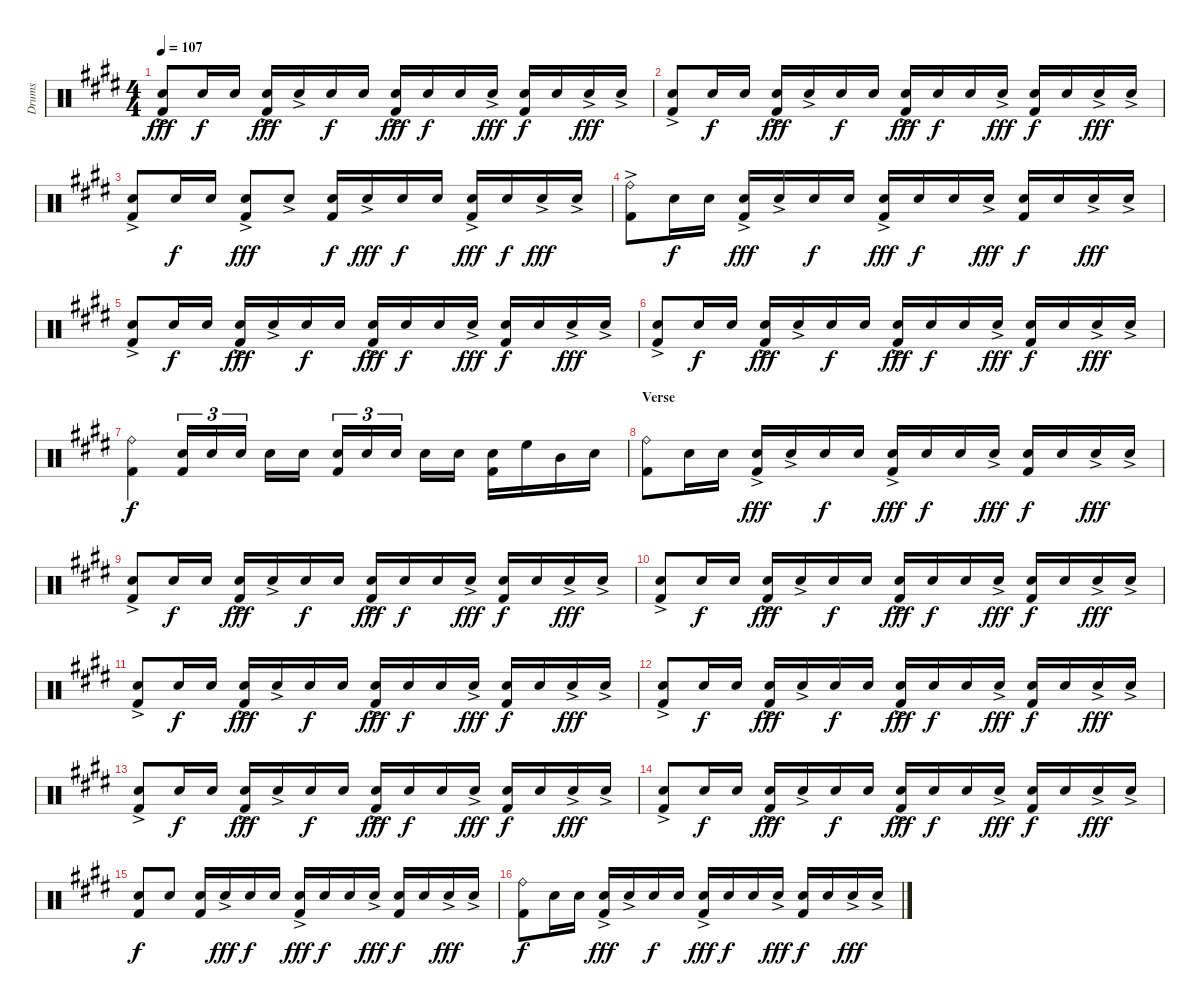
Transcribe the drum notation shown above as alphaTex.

\track ("Drums" "Drums") {instrument percussion}
\staff {score}
\articulation defaults
\ts (4 4)
\tempo 107
\clef neutral
\ks c#minor
("Electric Snare (hit)"{ac} "Kick (hit) 2").8{dy fff} "Electric Snare (hit)".16{dy f} "Electric Snare (hit)".16 ("Electric Snare (hit)"{ac} "Kick (hit) 2").16{dy fff} "Electric Snare (hit)"{ac}.16 "Electric Snare (hit)".16{dy f} "Electric Snare (hit)".16 ("Electric Snare (hit)"{ac} "Kick (hit) 2").16{dy fff} "Electric Snare (hit)".16{dy f} "Electric Snare (hit)".16 "Electric Snare (hit)"{ac}.16{dy fff} ("Electric Snare (hit)" "Kick (hit) 2").16{dy f} "Electric Snare (hit)".16 "Electric Snare (hit)"{ac}.16{dy fff} "Electric Snare (hit)"{ac}.16 |
("Electric Snare (hit)"{ac} "Kick (hit) 2").8 "Electric Snare (hit)".16{dy f} "Electric Snare (hit)".16 ("Electric Snare (hit)"{ac} "Kick (hit) 2").16{dy fff} "Electric Snare (hit)"{ac}.16 "Electric Snare (hit)".16{dy f} "Electric Snare (hit)".16 ("Electric Snare (hit)"{ac} "Kick (hit) 2").16{dy fff} "Electric Snare (hit)".16{dy f} "Electric Snare (hit)".16 "Electric Snare (hit)"{ac}.16{dy fff} ("Electric Snare (hit)" "Kick (hit) 2").16{dy f} "Electric Snare (hit)".16 "Electric Snare (hit)"{ac}.16{dy fff} "Electric Snare (hit)"{ac}.16 |
("Electric Snare (hit)"{ac} "Kick (hit) 2").8 "Electric Snare (hit)".16{dy f} "Electric Snare (hit)".16 ("Electric Snare (hit)"{ac} "Kick (hit) 2").8{dy fff} "Electric Snare (hit)"{ac}.8 ("Electric Snare (hit)" "Kick (hit) 2").16{dy f} "Electric Snare (hit)"{ac}.16{dy fff} "Electric Snare (hit)".16{dy f} "Electric Snare (hit)".16 ("Electric Snare (hit)"{ac} "Kick (hit) 2").16{dy fff} "Electric Snare (hit)".16{dy f} "Electric Snare (hit)"{ac}.16{dy fff} "Electric Snare (hit)"{ac}.16 |
("Ride (bell)"{ac} "Kick (hit) 2").8 "Electric Snare (hit)".16{dy f} "Electric Snare (hit)".16 ("Electric Snare (hit)"{ac} "Kick (hit) 2").16{dy fff} "Electric Snare (hit)"{ac}.16 "Electric Snare (hit)".16{dy f} "Electric Snare (hit)".16 ("Electric Snare (hit)"{ac} "Kick (hit) 2").16{dy fff} "Electric Snare (hit)".16{dy f} "Electric Snare (hit)".16 "Electric Snare (hit)"{ac}.16{dy fff} ("Electric Snare (hit)" "Kick (hit) 2").16{dy f} "Electric Snare (hit)".16 "Electric Snare (hit)"{ac}.16{dy fff} "Electric Snare (hit)"{ac}.16 |
("Electric Snare (hit)"{ac} "Kick (hit) 2").8 "Electric Snare (hit)".16{dy f} "Electric Snare (hit)".16 ("Electric Snare (hit)"{ac} "Kick (hit) 2").16{dy fff} "Electric Snare (hit)"{ac}.16 "Electric Snare (hit)".16{dy f} "Electric Snare (hit)".16 ("Electric Snare (hit)"{ac} "Kick (hit) 2").16{dy fff} "Electric Snare (hit)".16{dy f} "Electric Snare (hit)".16 "Electric Snare (hit)"{ac}.16{dy fff} ("Electric Snare (hit)" "Kick (hit) 2").16{dy f} "Electric Snare (hit)".16 "Electric Snare (hit)"{ac}.16{dy fff} "Electric Snare (hit)"{ac}.16 |
("Electric Snare (hit)"{ac} "Kick (hit) 2").8 "Electric Snare (hit)".16{dy f} "Electric Snare (hit)".16 ("Electric Snare (hit)"{ac} "Kick (hit) 2").16{dy fff} "Electric Snare (hit)"{ac}.16 "Electric Snare (hit)".16{dy f} "Electric Snare (hit)".16 ("Electric Snare (hit)"{ac} "Kick (hit) 2").16{dy fff} "Electric Snare (hit)".16{dy f} "Electric Snare (hit)".16 "Electric Snare (hit)"{ac}.16{dy fff} ("Electric Snare (hit)" "Kick (hit) 2").16{dy f} "Electric Snare (hit)".16 "Electric Snare (hit)"{ac}.16{dy fff} "Electric Snare (hit)"{ac}.16 |
("Ride (bell)" "Kick (hit) 2").4{dy f} ("Electric Snare (hit)" "Kick (hit) 2").16{tu (3 2)} "Electric Snare (hit)".16{tu (3 2)} "Electric Snare (hit)".16{tu (3 2)} "Electric Snare (hit)".16 "Electric Snare (hit)".16 ("Electric Snare (hit)" "Kick (hit) 2").16{tu (3 2)} "Electric Snare (hit)".16{tu (3 2)} "Electric Snare (hit)".16{tu (3 2)} "Electric Snare (hit)".16 "Electric Snare (hit)".16 ("Electric Snare (hit)" "Kick (hit) 2").16 "High Floor Tom (hit)".16 "Mid Tom (hit)".16 "Electric Snare (hit)".16 |
\section ("" "Verse")
("Ride (bell)" "Kick (hit) 2").8 "Electric Snare (hit)".16 "Electric Snare (hit)".16 ("Electric Snare (hit)"{ac} "Kick (hit) 2").16{dy fff} "Electric Snare (hit)"{ac}.16 "Electric Snare (hit)".16{dy f} "Electric Snare (hit)".16 ("Electric Snare (hit)"{ac} "Kick (hit) 2").16{dy fff} "Electric Snare (hit)".16{dy f} "Electric Snare (hit)".16 "Electric Snare (hit)"{ac}.16{dy fff} ("Electric Snare (hit)" "Kick (hit) 2").16{dy f} "Electric Snare (hit)".16 "Electric Snare (hit)"{ac}.16{dy fff} "Electric Snare (hit)"{ac}.16 |
("Electric Snare (hit)"{ac} "Kick (hit) 2").8 "Electric Snare (hit)".16{dy f} "Electric Snare (hit)".16 ("Electric Snare (hit)"{ac} "Kick (hit) 2").16{dy fff} "Electric Snare (hit)"{ac}.16 "Electric Snare (hit)".16{dy f} "Electric Snare (hit)".16 ("Electric Snare (hit)"{ac} "Kick (hit) 2").16{dy fff} "Electric Snare (hit)".16{dy f} "Electric Snare (hit)".16 "Electric Snare (hit)"{ac}.16{dy fff} ("Electric Snare (hit)" "Kick (hit) 2").16{dy f} "Electric Snare (hit)".16 "Electric Snare (hit)"{ac}.16{dy fff} "Electric Snare (hit)"{ac}.16 |
("Electric Snare (hit)"{ac} "Kick (hit) 2").8 "Electric Snare (hit)".16{dy f} "Electric Snare (hit)".16 ("Electric Snare (hit)"{ac} "Kick (hit) 2").16{dy fff} "Electric Snare (hit)"{ac}.16 "Electric Snare (hit)".16{dy f} "Electric Snare (hit)".16 ("Electric Snare (hit)"{ac} "Kick (hit) 2").16{dy fff} "Electric Snare (hit)".16{dy f} "Electric Snare (hit)".16 "Electric Snare (hit)"{ac}.16{dy fff} ("Electric Snare (hit)" "Kick (hit) 2").16{dy f} "Electric Snare (hit)".16 "Electric Snare (hit)"{ac}.16{dy fff} "Electric Snare (hit)"{ac}.16 |
("Electric Snare (hit)"{ac} "Kick (hit) 2").8 "Electric Snare (hit)".16{dy f} "Electric Snare (hit)".16 ("Electric Snare (hit)"{ac} "Kick (hit) 2").16{dy fff} "Electric Snare (hit)"{ac}.16 "Electric Snare (hit)".16{dy f} "Electric Snare (hit)".16 ("Electric Snare (hit)"{ac} "Kick (hit) 2").16{dy fff} "Electric Snare (hit)".16{dy f} "Electric Snare (hit)".16 "Electric Snare (hit)"{ac}.16{dy fff} ("Electric Snare (hit)" "Kick (hit) 2").16{dy f} "Electric Snare (hit)".16 "Electric Snare (hit)"{ac}.16{dy fff} "Electric Snare (hit)"{ac}.16 |
("Electric Snare (hit)"{ac} "Kick (hit) 2").8 "Electric Snare (hit)".16{dy f} "Electric Snare (hit)".16 ("Electric Snare (hit)"{ac} "Kick (hit) 2").16{dy fff} "Electric Snare (hit)"{ac}.16 "Electric Snare (hit)".16{dy f} "Electric Snare (hit)".16 ("Electric Snare (hit)"{ac} "Kick (hit) 2").16{dy fff} "Electric Snare (hit)".16{dy f} "Electric Snare (hit)".16 "Electric Snare (hit)"{ac}.16{dy fff} ("Electric Snare (hit)" "Kick (hit) 2").16{dy f} "Electric Snare (hit)".16 "Electric Snare (hit)"{ac}.16{dy fff} "Electric Snare (hit)"{ac}.16 |
("Electric Snare (hit)"{ac} "Kick (hit) 2").8 "Electric Snare (hit)".16{dy f} "Electric Snare (hit)".16 ("Electric Snare (hit)"{ac} "Kick (hit) 2").16{dy fff} "Electric Snare (hit)"{ac}.16 "Electric Snare (hit)".16{dy f} "Electric Snare (hit)".16 ("Electric Snare (hit)"{ac} "Kick (hit) 2").16{dy fff} "Electric Snare (hit)".16{dy f} "Electric Snare (hit)".16 "Electric Snare (hit)"{ac}.16{dy fff} ("Electric Snare (hit)" "Kick (hit) 2").16{dy f} "Electric Snare (hit)".16 "Electric Snare (hit)"{ac}.16{dy fff} "Electric Snare (hit)"{ac}.16 |
("Electric Snare (hit)"{ac} "Kick (hit) 2").8 "Electric Snare (hit)".16{dy f} "Electric Snare (hit)".16 ("Electric Snare (hit)"{ac} "Kick (hit) 2").16{dy fff} "Electric Snare (hit)"{ac}.16 "Electric Snare (hit)".16{dy f} "Electric Snare (hit)".16 ("Electric Snare (hit)"{ac} "Kick (hit) 2").16{dy fff} "Electric Snare (hit)".16{dy f} "Electric Snare (hit)".16 "Electric Snare (hit)"{ac}.16{dy fff} ("Electric Snare (hit)" "Kick (hit) 2").16{dy f} "Electric Snare (hit)".16 "Electric Snare (hit)"{ac}.16{dy fff} "Electric Snare (hit)"{ac}.16 |
("Electric Snare (hit)" "Kick (hit) 2").8{dy f} "Electric Snare (hit)".8 ("Electric Snare (hit)" "Kick (hit) 2").16 "Electric Snare (hit)"{ac}.16{dy fff} "Electric Snare (hit)".16{dy f} "Electric Snare (hit)".16 ("Electric Snare (hit)"{ac} "Kick (hit) 2").16{dy fff} "Electric Snare (hit)".16{dy f} "Electric Snare (hit)".16 "Electric Snare (hit)"{ac}.16{dy fff} ("Electric Snare (hit)" "Kick (hit) 2").16{dy f} "Electric Snare (hit)".16 "Electric Snare (hit)"{ac}.16{dy fff} "Electric Snare (hit)"{ac}.16 |
("Ride (bell)" "Kick (hit) 2").8{dy f} "Electric Snare (hit)".16 "Electric Snare (hit)".16 ("Electric Snare (hit)"{ac} "Kick (hit) 2").16{dy fff} "Electric Snare (hit)"{ac}.16 "Electric Snare (hit)".16{dy f} "Electric Snare (hit)".16 ("Electric Snare (hit)"{ac} "Kick (hit) 2").16{dy fff} "Electric Snare (hit)".16{dy f} "Electric Snare (hit)".16 "Electric Snare (hit)"{ac}.16{dy fff} ("Electric Snare (hit)" "Kick (hit) 2").16{dy f} "Electric Snare (hit)".16 "Electric Snare (hit)"{ac}.16{dy fff} "Electric Snare (hit)"{ac}.16
